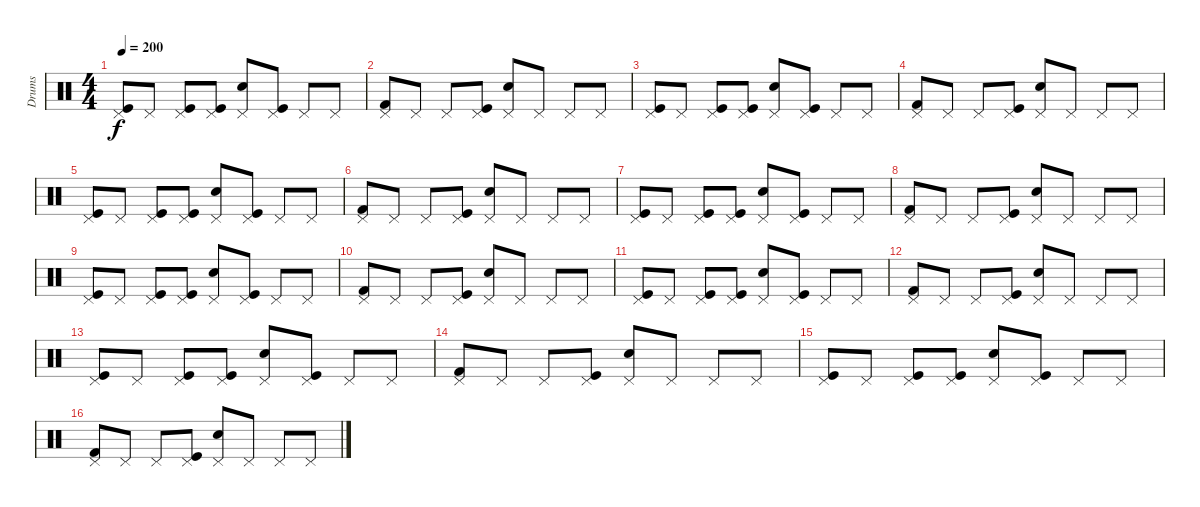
\track ("Drums" "Drums") {instrument percussion}
\staff {score}
\articulation defaults
\ts (4 4)
\tempo 200
\clef neutral
\ks c
("Kick (hit)" "Pedal Hi-Hat (hit)").8{dy f} "Pedal Hi-Hat (hit)".8 ("Kick (hit)" "Pedal Hi-Hat (hit)").8 ("Kick (hit)" "Pedal Hi-Hat (hit)").8 ("Snare (hit) 2" "Pedal Hi-Hat (hit)").8 ("Kick (hit)" "Pedal Hi-Hat (hit)").8 "Pedal Hi-Hat (hit)".8 "Pedal Hi-Hat (hit)".8 |
("Kick (hit) 2" "Pedal Hi-Hat (hit)").8 "Pedal Hi-Hat (hit)".8 "Pedal Hi-Hat (hit)".8 ("Kick (hit)" "Pedal Hi-Hat (hit)").8 ("Snare (hit) 2" "Pedal Hi-Hat (hit)").8 "Pedal Hi-Hat (hit)".8 "Pedal Hi-Hat (hit)".8 "Pedal Hi-Hat (hit)".8 |
("Kick (hit)" "Pedal Hi-Hat (hit)").8 "Pedal Hi-Hat (hit)".8 ("Kick (hit)" "Pedal Hi-Hat (hit)").8 ("Kick (hit)" "Pedal Hi-Hat (hit)").8 ("Snare (hit) 2" "Pedal Hi-Hat (hit)").8 ("Kick (hit)" "Pedal Hi-Hat (hit)").8 "Pedal Hi-Hat (hit)".8 "Pedal Hi-Hat (hit)".8 |
("Kick (hit) 2" "Pedal Hi-Hat (hit)").8 "Pedal Hi-Hat (hit)".8 "Pedal Hi-Hat (hit)".8 ("Kick (hit)" "Pedal Hi-Hat (hit)").8 ("Snare (hit) 2" "Pedal Hi-Hat (hit)").8 "Pedal Hi-Hat (hit)".8 "Pedal Hi-Hat (hit)".8 "Pedal Hi-Hat (hit)".8 |
("Kick (hit)" "Pedal Hi-Hat (hit)").8 "Pedal Hi-Hat (hit)".8 ("Kick (hit)" "Pedal Hi-Hat (hit)").8 ("Kick (hit)" "Pedal Hi-Hat (hit)").8 ("Snare (hit) 2" "Pedal Hi-Hat (hit)").8 ("Kick (hit)" "Pedal Hi-Hat (hit)").8 "Pedal Hi-Hat (hit)".8 "Pedal Hi-Hat (hit)".8 |
("Kick (hit) 2" "Pedal Hi-Hat (hit)").8 "Pedal Hi-Hat (hit)".8 "Pedal Hi-Hat (hit)".8 ("Kick (hit)" "Pedal Hi-Hat (hit)").8 ("Snare (hit) 2" "Pedal Hi-Hat (hit)").8 "Pedal Hi-Hat (hit)".8 "Pedal Hi-Hat (hit)".8 "Pedal Hi-Hat (hit)".8 |
("Kick (hit)" "Pedal Hi-Hat (hit)").8 "Pedal Hi-Hat (hit)".8 ("Kick (hit)" "Pedal Hi-Hat (hit)").8 ("Kick (hit)" "Pedal Hi-Hat (hit)").8 ("Snare (hit) 2" "Pedal Hi-Hat (hit)").8 ("Kick (hit)" "Pedal Hi-Hat (hit)").8 "Pedal Hi-Hat (hit)".8 "Pedal Hi-Hat (hit)".8 |
("Kick (hit) 2" "Pedal Hi-Hat (hit)").8 "Pedal Hi-Hat (hit)".8 "Pedal Hi-Hat (hit)".8 ("Kick (hit)" "Pedal Hi-Hat (hit)").8 ("Snare (hit) 2" "Pedal Hi-Hat (hit)").8 "Pedal Hi-Hat (hit)".8 "Pedal Hi-Hat (hit)".8 "Pedal Hi-Hat (hit)".8 |
("Kick (hit)" "Pedal Hi-Hat (hit)").8 "Pedal Hi-Hat (hit)".8 ("Kick (hit)" "Pedal Hi-Hat (hit)").8 ("Kick (hit)" "Pedal Hi-Hat (hit)").8 ("Snare (hit) 2" "Pedal Hi-Hat (hit)").8 ("Kick (hit)" "Pedal Hi-Hat (hit)").8 "Pedal Hi-Hat (hit)".8 "Pedal Hi-Hat (hit)".8 |
("Kick (hit) 2" "Pedal Hi-Hat (hit)").8 "Pedal Hi-Hat (hit)".8 "Pedal Hi-Hat (hit)".8 ("Kick (hit)" "Pedal Hi-Hat (hit)").8 ("Snare (hit) 2" "Pedal Hi-Hat (hit)").8 "Pedal Hi-Hat (hit)".8 "Pedal Hi-Hat (hit)".8 "Pedal Hi-Hat (hit)".8 |
("Kick (hit)" "Pedal Hi-Hat (hit)").8 "Pedal Hi-Hat (hit)".8 ("Kick (hit)" "Pedal Hi-Hat (hit)").8 ("Kick (hit)" "Pedal Hi-Hat (hit)").8 ("Snare (hit) 2" "Pedal Hi-Hat (hit)").8 ("Kick (hit)" "Pedal Hi-Hat (hit)").8 "Pedal Hi-Hat (hit)".8 "Pedal Hi-Hat (hit)".8 |
("Kick (hit) 2" "Pedal Hi-Hat (hit)").8 "Pedal Hi-Hat (hit)".8 "Pedal Hi-Hat (hit)".8 ("Kick (hit)" "Pedal Hi-Hat (hit)").8 ("Snare (hit) 2" "Pedal Hi-Hat (hit)").8 "Pedal Hi-Hat (hit)".8 "Pedal Hi-Hat (hit)".8 "Pedal Hi-Hat (hit)".8 |
("Kick (hit)" "Pedal Hi-Hat (hit)").8 "Pedal Hi-Hat (hit)".8 ("Kick (hit)" "Pedal Hi-Hat (hit)").8 ("Kick (hit)" "Pedal Hi-Hat (hit)").8 ("Snare (hit) 2" "Pedal Hi-Hat (hit)").8 ("Kick (hit)" "Pedal Hi-Hat (hit)").8 "Pedal Hi-Hat (hit)".8 "Pedal Hi-Hat (hit)".8 |
("Kick (hit) 2" "Pedal Hi-Hat (hit)").8 "Pedal Hi-Hat (hit)".8 "Pedal Hi-Hat (hit)".8 ("Kick (hit)" "Pedal Hi-Hat (hit)").8 ("Snare (hit) 2" "Pedal Hi-Hat (hit)").8 "Pedal Hi-Hat (hit)".8 "Pedal Hi-Hat (hit)".8 "Pedal Hi-Hat (hit)".8 |
("Kick (hit)" "Pedal Hi-Hat (hit)").8 "Pedal Hi-Hat (hit)".8 ("Kick (hit)" "Pedal Hi-Hat (hit)").8 ("Kick (hit)" "Pedal Hi-Hat (hit)").8 ("Snare (hit) 2" "Pedal Hi-Hat (hit)").8 ("Kick (hit)" "Pedal Hi-Hat (hit)").8 "Pedal Hi-Hat (hit)".8 "Pedal Hi-Hat (hit)".8 |
("Kick (hit) 2" "Pedal Hi-Hat (hit)").8 "Pedal Hi-Hat (hit)".8 "Pedal Hi-Hat (hit)".8 ("Kick (hit)" "Pedal Hi-Hat (hit)").8 ("Snare (hit) 2" "Pedal Hi-Hat (hit)").8 "Pedal Hi-Hat (hit)".8 "Pedal Hi-Hat (hit)".8 "Pedal Hi-Hat (hit)".8
